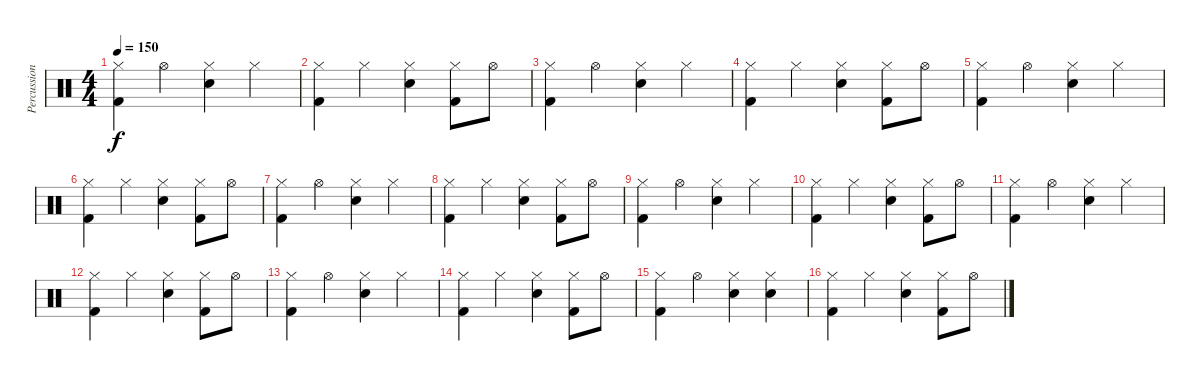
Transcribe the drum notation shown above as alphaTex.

\track ("Percussion" "Percussion") {instrument percussion}
\staff {score}
\articulation defaults
\ts (4 4)
\tempo 150
\clef neutral
\ks c
("Hi-Hat (closed)" "Kick (hit) 2").4{dy f} "Hi-Hat (open)".4 ("Hi-Hat (closed)" "Snare (hit) 2").4 "Hi-Hat (closed)".4 |
("Hi-Hat (closed)" "Kick (hit) 2").4 "Hi-Hat (closed)".4 ("Hi-Hat (closed)" "Snare (hit) 2").4 ("Hi-Hat (closed)" "Kick (hit) 2").8 "Hi-Hat (open)".8 |
("Hi-Hat (closed)" "Kick (hit) 2").4 "Hi-Hat (open)".4 ("Hi-Hat (closed)" "Snare (hit) 2").4 "Hi-Hat (closed)".4 |
("Hi-Hat (closed)" "Kick (hit) 2").4 "Hi-Hat (closed)".4 ("Hi-Hat (closed)" "Snare (hit) 2").4 ("Hi-Hat (closed)" "Kick (hit) 2").8 "Hi-Hat (open)".8 |
("Hi-Hat (closed)" "Kick (hit) 2").4 "Hi-Hat (open)".4 ("Hi-Hat (closed)" "Snare (hit) 2").4 "Hi-Hat (closed)".4 |
("Hi-Hat (closed)" "Kick (hit) 2").4 "Hi-Hat (closed)".4 ("Hi-Hat (closed)" "Snare (hit) 2").4 ("Hi-Hat (closed)" "Kick (hit) 2").8 "Hi-Hat (open)".8 |
("Hi-Hat (closed)" "Kick (hit) 2").4 "Hi-Hat (open)".4 ("Hi-Hat (closed)" "Snare (hit) 2").4 "Hi-Hat (closed)".4 |
("Hi-Hat (closed)" "Kick (hit) 2").4 "Hi-Hat (closed)".4 ("Hi-Hat (closed)" "Snare (hit) 2").4 ("Hi-Hat (closed)" "Kick (hit) 2").8 "Hi-Hat (open)".8 |
("Hi-Hat (closed)" "Kick (hit) 2").4 "Hi-Hat (open)".4 ("Hi-Hat (closed)" "Snare (hit) 2").4 "Hi-Hat (closed)".4 |
("Hi-Hat (closed)" "Kick (hit) 2").4 "Hi-Hat (closed)".4 ("Hi-Hat (closed)" "Snare (hit) 2").4 ("Hi-Hat (closed)" "Kick (hit) 2").8 "Hi-Hat (open)".8 |
("Hi-Hat (closed)" "Kick (hit) 2").4 "Hi-Hat (open)".4 ("Hi-Hat (closed)" "Snare (hit) 2").4 "Hi-Hat (closed)".4 |
("Hi-Hat (closed)" "Kick (hit) 2").4 "Hi-Hat (closed)".4 ("Hi-Hat (closed)" "Snare (hit) 2").4 ("Hi-Hat (closed)" "Kick (hit) 2").8 "Hi-Hat (open)".8 |
("Hi-Hat (closed)" "Kick (hit) 2").4 "Hi-Hat (open)".4 ("Hi-Hat (closed)" "Snare (hit) 2").4 "Hi-Hat (closed)".4 |
("Hi-Hat (closed)" "Kick (hit) 2").4 "Hi-Hat (closed)".4 ("Hi-Hat (closed)" "Snare (hit) 2").4 ("Hi-Hat (closed)" "Kick (hit) 2").8 "Hi-Hat (open)".8 |
("Hi-Hat (closed)" "Kick (hit) 2").4 "Hi-Hat (open)".4 ("Hi-Hat (closed)" "Snare (hit) 2").4 ("Hi-Hat (closed)" "Snare (hit) 2").4 |
("Hi-Hat (closed)" "Kick (hit) 2").4 "Hi-Hat (closed)".4 ("Hi-Hat (closed)" "Snare (hit) 2").4 ("Hi-Hat (closed)" "Kick (hit) 2").8 "Hi-Hat (open)".8
